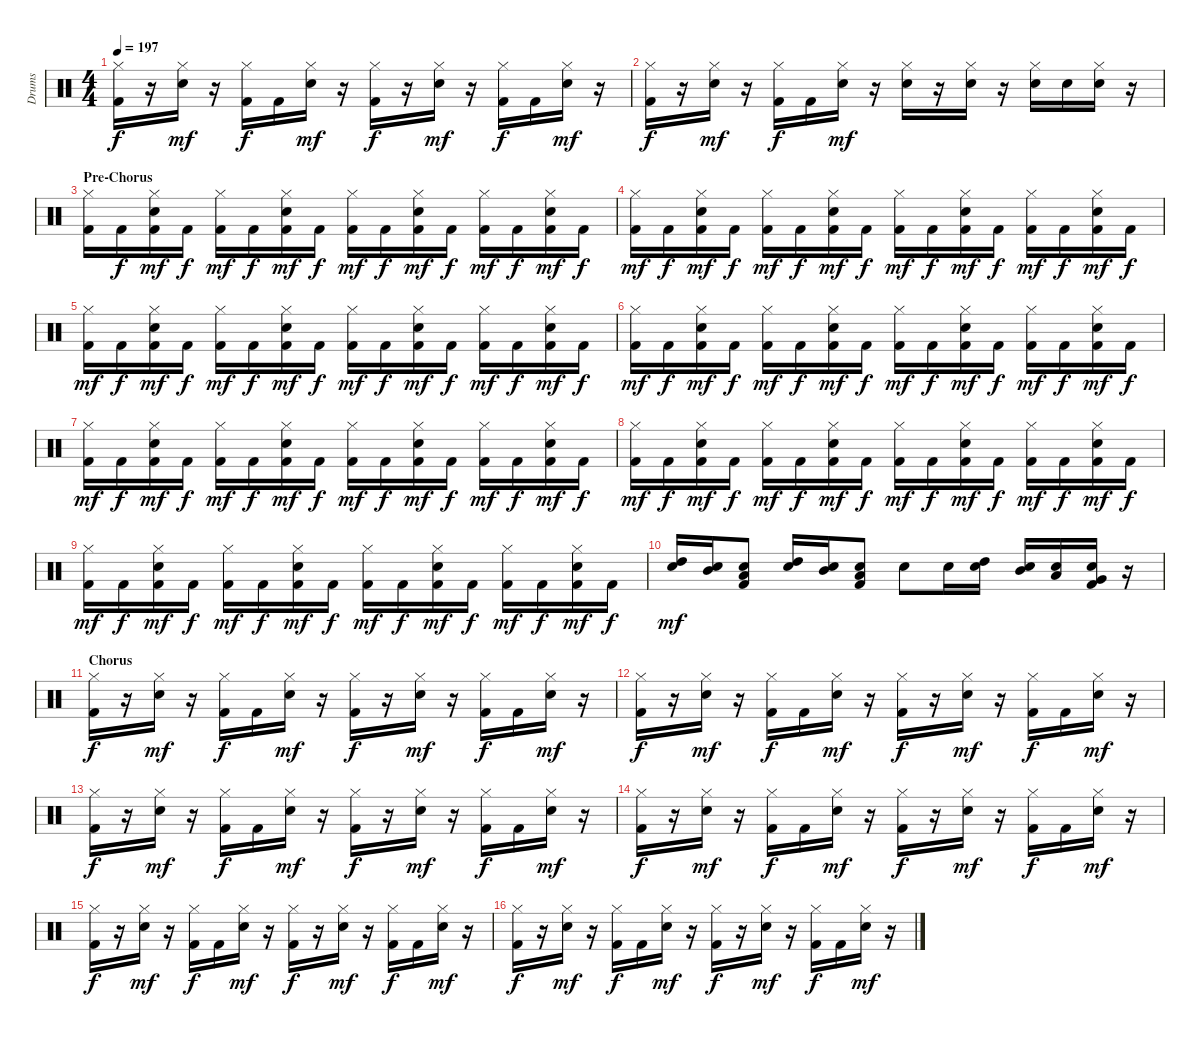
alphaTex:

\track ("Drums" "Drums") {instrument percussion}
\staff {score}
\articulation defaults
\ts (4 4)
\tempo 197
\clef neutral
\ks c
("Kick (hit) 2" "Hi-Hat (closed)").16{dy f} r.16 ("Snare (hit) 2" "Hi-Hat (closed)").16{dy mf} r.16 ("Kick (hit) 2" "Hi-Hat (closed)").16{dy f} "Kick (hit) 2".16 ("Snare (hit) 2" "Hi-Hat (closed)").16{dy mf} r.16 ("Kick (hit) 2" "Hi-Hat (closed)").16{dy f} r.16 ("Snare (hit) 2" "Hi-Hat (closed)").16{dy mf} r.16 ("Kick (hit) 2" "Hi-Hat (closed)").16{dy f} "Kick (hit) 2".16 ("Snare (hit) 2" "Hi-Hat (closed)").16{dy mf} r.16 |
("Kick (hit) 2" "Hi-Hat (closed)").16{dy f} r.16 ("Snare (hit) 2" "Hi-Hat (closed)").16{dy mf} r.16 ("Kick (hit) 2" "Hi-Hat (closed)").16{dy f} "Kick (hit) 2".16 ("Snare (hit) 2" "Hi-Hat (closed)").16{dy mf} r.16 ("Snare (hit) 2" "Hi-Hat (closed)").16 r.16 ("Snare (hit) 2" "Hi-Hat (closed)").16 r.16 ("Snare (hit) 2" "Hi-Hat (closed)").16 "Snare (hit) 2".16 ("Snare (hit) 2" "Hi-Hat (closed)").16 r.16 |
\section ("" "Pre-Chorus")
("Kick (hit) 2" "Hi-Hat (closed)").16 "Kick (hit) 2".16{dy f} ("Kick (hit) 2" "Snare (hit) 2" "Hi-Hat (closed)").16{dy mf} "Kick (hit) 2".16{dy f} ("Kick (hit) 2" "Hi-Hat (closed)").16{dy mf} "Kick (hit) 2".16{dy f} ("Kick (hit) 2" "Snare (hit) 2" "Hi-Hat (closed)").16{dy mf} "Kick (hit) 2".16{dy f} ("Kick (hit) 2" "Hi-Hat (closed)").16{dy mf} "Kick (hit) 2".16{dy f} ("Kick (hit) 2" "Snare (hit) 2" "Hi-Hat (closed)").16{dy mf} "Kick (hit) 2".16{dy f} ("Kick (hit) 2" "Hi-Hat (closed)").16{dy mf} "Kick (hit) 2".16{dy f} ("Kick (hit) 2" "Snare (hit) 2" "Hi-Hat (closed)").16{dy mf} "Kick (hit) 2".16{dy f} |
("Kick (hit) 2" "Hi-Hat (closed)").16{dy mf} "Kick (hit) 2".16{dy f} ("Kick (hit) 2" "Snare (hit) 2" "Hi-Hat (closed)").16{dy mf} "Kick (hit) 2".16{dy f} ("Kick (hit) 2" "Hi-Hat (closed)").16{dy mf} "Kick (hit) 2".16{dy f} ("Kick (hit) 2" "Snare (hit) 2" "Hi-Hat (closed)").16{dy mf} "Kick (hit) 2".16{dy f} ("Kick (hit) 2" "Hi-Hat (closed)").16{dy mf} "Kick (hit) 2".16{dy f} ("Kick (hit) 2" "Snare (hit) 2" "Hi-Hat (closed)").16{dy mf} "Kick (hit) 2".16{dy f} ("Kick (hit) 2" "Hi-Hat (closed)").16{dy mf} "Kick (hit) 2".16{dy f} ("Kick (hit) 2" "Snare (hit) 2" "Hi-Hat (closed)").16{dy mf} "Kick (hit) 2".16{dy f} |
("Kick (hit) 2" "Hi-Hat (closed)").16{dy mf} "Kick (hit) 2".16{dy f} ("Kick (hit) 2" "Snare (hit) 2" "Hi-Hat (closed)").16{dy mf} "Kick (hit) 2".16{dy f} ("Kick (hit) 2" "Hi-Hat (closed)").16{dy mf} "Kick (hit) 2".16{dy f} ("Kick (hit) 2" "Snare (hit) 2" "Hi-Hat (closed)").16{dy mf} "Kick (hit) 2".16{dy f} ("Kick (hit) 2" "Hi-Hat (closed)").16{dy mf} "Kick (hit) 2".16{dy f} ("Kick (hit) 2" "Snare (hit) 2" "Hi-Hat (closed)").16{dy mf} "Kick (hit) 2".16{dy f} ("Kick (hit) 2" "Hi-Hat (closed)").16{dy mf} "Kick (hit) 2".16{dy f} ("Kick (hit) 2" "Snare (hit) 2" "Hi-Hat (closed)").16{dy mf} "Kick (hit) 2".16{dy f} |
("Kick (hit) 2" "Hi-Hat (closed)").16{dy mf} "Kick (hit) 2".16{dy f} ("Kick (hit) 2" "Snare (hit) 2" "Hi-Hat (closed)").16{dy mf} "Kick (hit) 2".16{dy f} ("Kick (hit) 2" "Hi-Hat (closed)").16{dy mf} "Kick (hit) 2".16{dy f} ("Kick (hit) 2" "Snare (hit) 2" "Hi-Hat (closed)").16{dy mf} "Kick (hit) 2".16{dy f} ("Kick (hit) 2" "Hi-Hat (closed)").16{dy mf} "Kick (hit) 2".16{dy f} ("Kick (hit) 2" "Snare (hit) 2" "Hi-Hat (closed)").16{dy mf} "Kick (hit) 2".16{dy f} ("Kick (hit) 2" "Hi-Hat (closed)").16{dy mf} "Kick (hit) 2".16{dy f} ("Kick (hit) 2" "Snare (hit) 2" "Hi-Hat (closed)").16{dy mf} "Kick (hit) 2".16{dy f} |
("Kick (hit) 2" "Hi-Hat (closed)").16{dy mf} "Kick (hit) 2".16{dy f} ("Kick (hit) 2" "Snare (hit) 2" "Hi-Hat (closed)").16{dy mf} "Kick (hit) 2".16{dy f} ("Kick (hit) 2" "Hi-Hat (closed)").16{dy mf} "Kick (hit) 2".16{dy f} ("Kick (hit) 2" "Snare (hit) 2" "Hi-Hat (closed)").16{dy mf} "Kick (hit) 2".16{dy f} ("Kick (hit) 2" "Hi-Hat (closed)").16{dy mf} "Kick (hit) 2".16{dy f} ("Kick (hit) 2" "Snare (hit) 2" "Hi-Hat (closed)").16{dy mf} "Kick (hit) 2".16{dy f} ("Kick (hit) 2" "Hi-Hat (closed)").16{dy mf} "Kick (hit) 2".16{dy f} ("Kick (hit) 2" "Snare (hit) 2" "Hi-Hat (closed)").16{dy mf} "Kick (hit) 2".16{dy f} |
("Kick (hit) 2" "Hi-Hat (closed)").16{dy mf} "Kick (hit) 2".16{dy f} ("Kick (hit) 2" "Snare (hit) 2" "Hi-Hat (closed)").16{dy mf} "Kick (hit) 2".16{dy f} ("Kick (hit) 2" "Hi-Hat (closed)").16{dy mf} "Kick (hit) 2".16{dy f} ("Kick (hit) 2" "Snare (hit) 2" "Hi-Hat (closed)").16{dy mf} "Kick (hit) 2".16{dy f} ("Kick (hit) 2" "Hi-Hat (closed)").16{dy mf} "Kick (hit) 2".16{dy f} ("Kick (hit) 2" "Snare (hit) 2" "Hi-Hat (closed)").16{dy mf} "Kick (hit) 2".16{dy f} ("Kick (hit) 2" "Hi-Hat (closed)").16{dy mf} "Kick (hit) 2".16{dy f} ("Kick (hit) 2" "Snare (hit) 2" "Hi-Hat (closed)").16{dy mf} "Kick (hit) 2".16{dy f} |
("Kick (hit) 2" "Hi-Hat (closed)").16{dy mf} "Kick (hit) 2".16{dy f} ("Kick (hit) 2" "Snare (hit) 2" "Hi-Hat (closed)").16{dy mf} "Kick (hit) 2".16{dy f} ("Kick (hit) 2" "Hi-Hat (closed)").16{dy mf} "Kick (hit) 2".16{dy f} ("Kick (hit) 2" "Snare (hit) 2" "Hi-Hat (closed)").16{dy mf} "Kick (hit) 2".16{dy f} ("Kick (hit) 2" "Hi-Hat (closed)").16{dy mf} "Kick (hit) 2".16{dy f} ("Kick (hit) 2" "Snare (hit) 2" "Hi-Hat (closed)").16{dy mf} "Kick (hit) 2".16{dy f} ("Kick (hit) 2" "Hi-Hat (closed)").16{dy mf} "Kick (hit) 2".16{dy f} ("Kick (hit) 2" "Snare (hit) 2" "Hi-Hat (closed)").16{dy mf} "Kick (hit) 2".16{dy f} |
("Snare (hit) 2" "High Tom (hit)").16{dy mf} ("Snare (hit) 2" "Mid Tom (hit)").16 ("Kick (hit) 2" "Snare (hit) 2" "Low Tom (hit)").8 ("Snare (hit) 2" "High Tom (hit)").16 ("Snare (hit) 2" "Mid Tom (hit)").16 ("Kick (hit) 2" "Snare (hit) 2" "Low Tom (hit)").8 "Snare (hit) 2".8 "Snare (hit) 2".16 ("Snare (hit) 2" "High Tom (hit)").16 ("Snare (hit) 2" "Mid Tom (hit)").16 ("Snare (hit) 2" "Low Tom (hit)").16 ("Kick (hit) 2" "Snare (hit) 2" "Very Low Tom (hit)").16 r.16 |
\section ("" "Chorus")
("Kick (hit) 2" "Hi-Hat (closed)").16{dy f} r.16 ("Snare (hit) 2" "Hi-Hat (closed)").16{dy mf} r.16 ("Kick (hit) 2" "Hi-Hat (closed)").16{dy f} "Kick (hit) 2".16 ("Snare (hit) 2" "Hi-Hat (closed)").16{dy mf} r.16 ("Kick (hit) 2" "Hi-Hat (closed)").16{dy f} r.16 ("Snare (hit) 2" "Hi-Hat (closed)").16{dy mf} r.16 ("Kick (hit) 2" "Hi-Hat (closed)").16{dy f} "Kick (hit) 2".16 ("Snare (hit) 2" "Hi-Hat (closed)").16{dy mf} r.16 |
("Kick (hit) 2" "Hi-Hat (closed)").16{dy f} r.16 ("Snare (hit) 2" "Hi-Hat (closed)").16{dy mf} r.16 ("Kick (hit) 2" "Hi-Hat (closed)").16{dy f} "Kick (hit) 2".16 ("Snare (hit) 2" "Hi-Hat (closed)").16{dy mf} r.16 ("Kick (hit) 2" "Hi-Hat (closed)").16{dy f} r.16 ("Snare (hit) 2" "Hi-Hat (closed)").16{dy mf} r.16 ("Kick (hit) 2" "Hi-Hat (closed)").16{dy f} "Kick (hit) 2".16 ("Snare (hit) 2" "Hi-Hat (closed)").16{dy mf} r.16 |
("Kick (hit) 2" "Hi-Hat (closed)").16{dy f} r.16 ("Snare (hit) 2" "Hi-Hat (closed)").16{dy mf} r.16 ("Kick (hit) 2" "Hi-Hat (closed)").16{dy f} "Kick (hit) 2".16 ("Snare (hit) 2" "Hi-Hat (closed)").16{dy mf} r.16 ("Kick (hit) 2" "Hi-Hat (closed)").16{dy f} r.16 ("Snare (hit) 2" "Hi-Hat (closed)").16{dy mf} r.16 ("Kick (hit) 2" "Hi-Hat (closed)").16{dy f} "Kick (hit) 2".16 ("Snare (hit) 2" "Hi-Hat (closed)").16{dy mf} r.16 |
("Kick (hit) 2" "Hi-Hat (closed)").16{dy f} r.16 ("Snare (hit) 2" "Hi-Hat (closed)").16{dy mf} r.16 ("Kick (hit) 2" "Hi-Hat (closed)").16{dy f} "Kick (hit) 2".16 ("Snare (hit) 2" "Hi-Hat (closed)").16{dy mf} r.16 ("Kick (hit) 2" "Hi-Hat (closed)").16{dy f} r.16 ("Snare (hit) 2" "Hi-Hat (closed)").16{dy mf} r.16 ("Kick (hit) 2" "Hi-Hat (closed)").16{dy f} "Kick (hit) 2".16 ("Snare (hit) 2" "Hi-Hat (closed)").16{dy mf} r.16 |
("Kick (hit) 2" "Hi-Hat (closed)").16{dy f} r.16 ("Snare (hit) 2" "Hi-Hat (closed)").16{dy mf} r.16 ("Kick (hit) 2" "Hi-Hat (closed)").16{dy f} "Kick (hit) 2".16 ("Snare (hit) 2" "Hi-Hat (closed)").16{dy mf} r.16 ("Kick (hit) 2" "Hi-Hat (closed)").16{dy f} r.16 ("Snare (hit) 2" "Hi-Hat (closed)").16{dy mf} r.16 ("Kick (hit) 2" "Hi-Hat (closed)").16{dy f} "Kick (hit) 2".16 ("Snare (hit) 2" "Hi-Hat (closed)").16{dy mf} r.16 |
("Kick (hit) 2" "Hi-Hat (closed)").16{dy f} r.16 ("Snare (hit) 2" "Hi-Hat (closed)").16{dy mf} r.16 ("Kick (hit) 2" "Hi-Hat (closed)").16{dy f} "Kick (hit) 2".16 ("Snare (hit) 2" "Hi-Hat (closed)").16{dy mf} r.16 ("Kick (hit) 2" "Hi-Hat (closed)").16{dy f} r.16 ("Snare (hit) 2" "Hi-Hat (closed)").16{dy mf} r.16 ("Kick (hit) 2" "Hi-Hat (closed)").16{dy f} "Kick (hit) 2".16 ("Snare (hit) 2" "Hi-Hat (closed)").16{dy mf} r.16
